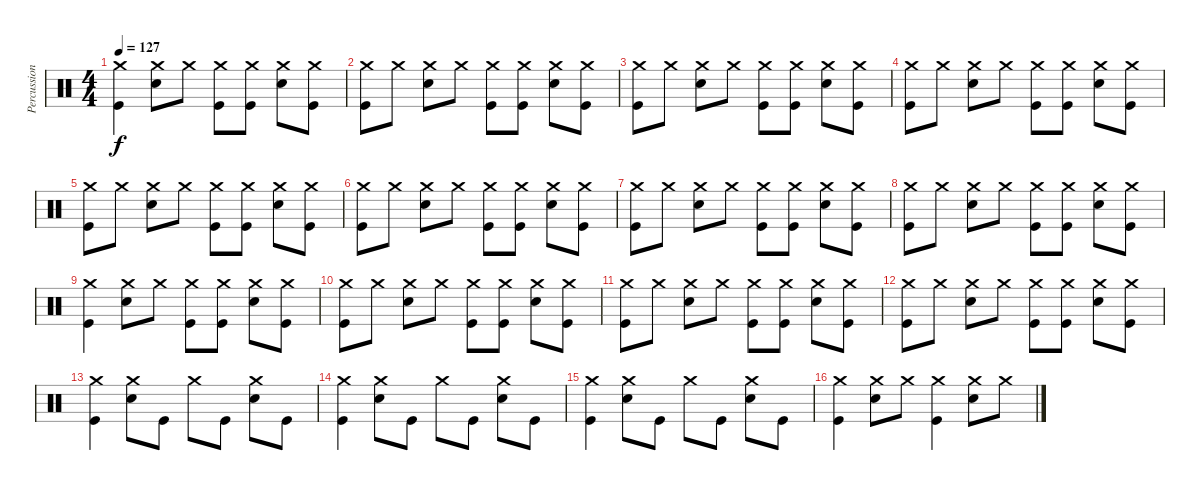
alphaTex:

\track ("Percussion" "Percussion") {instrument percussion}
\staff {score}
\articulation defaults
\ts (4 4)
\tempo 127
\clef neutral
\ks c
("Crash medium (hit)" "Kick (hit)").4{dy f} ("Crash medium (hit)" "Snare (hit) 2").8 "Crash medium (hit)".8 ("Crash medium (hit)" "Kick (hit)").8 ("Crash medium (hit)" "Kick (hit)").8 ("Crash medium (hit)" "Snare (hit) 2").8 ("Crash medium (hit)" "Kick (hit)").8 |
("Crash medium (hit)" "Kick (hit)").8 "Crash medium (hit)".8 ("Crash medium (hit)" "Snare (hit) 2").8 "Crash medium (hit)".8 ("Crash medium (hit)" "Kick (hit)").8 ("Crash medium (hit)" "Kick (hit)").8 ("Crash medium (hit)" "Snare (hit) 2").8 ("Crash medium (hit)" "Kick (hit)").8 |
("Crash medium (hit)" "Kick (hit)").8 "Crash medium (hit)".8 ("Crash medium (hit)" "Snare (hit) 2").8 "Crash medium (hit)".8 ("Crash medium (hit)" "Kick (hit)").8 ("Crash medium (hit)" "Kick (hit)").8 ("Crash medium (hit)" "Snare (hit) 2").8 ("Crash medium (hit)" "Kick (hit)").8 |
("Crash medium (hit)" "Kick (hit)").8 "Crash medium (hit)".8 ("Crash medium (hit)" "Snare (hit) 2").8 "Crash medium (hit)".8 ("Crash medium (hit)" "Kick (hit)").8 ("Crash medium (hit)" "Kick (hit)").8 ("Crash medium (hit)" "Snare (hit) 2").8 ("Crash medium (hit)" "Kick (hit)").8 |
("Crash medium (hit)" "Kick (hit)").8 "Crash medium (hit)".8 ("Crash medium (hit)" "Snare (hit) 2").8 "Crash medium (hit)".8 ("Crash medium (hit)" "Kick (hit)").8 ("Crash medium (hit)" "Kick (hit)").8 ("Crash medium (hit)" "Snare (hit) 2").8 ("Crash medium (hit)" "Kick (hit)").8 |
("Crash medium (hit)" "Kick (hit)").8 "Crash medium (hit)".8 ("Crash medium (hit)" "Snare (hit) 2").8 "Crash medium (hit)".8 ("Crash medium (hit)" "Kick (hit)").8 ("Crash medium (hit)" "Kick (hit)").8 ("Crash medium (hit)" "Snare (hit) 2").8 ("Crash medium (hit)" "Kick (hit)").8 |
("Crash medium (hit)" "Kick (hit)").8 "Crash medium (hit)".8 ("Crash medium (hit)" "Snare (hit) 2").8 "Crash medium (hit)".8 ("Crash medium (hit)" "Kick (hit)").8 ("Crash medium (hit)" "Kick (hit)").8 ("Crash medium (hit)" "Snare (hit) 2").8 ("Crash medium (hit)" "Kick (hit)").8 |
("Crash medium (hit)" "Kick (hit)").8 "Crash medium (hit)".8 ("Crash medium (hit)" "Snare (hit) 2").8 "Crash medium (hit)".8 ("Crash medium (hit)" "Kick (hit)").8 ("Crash medium (hit)" "Kick (hit)").8 ("Crash medium (hit)" "Snare (hit) 2").8 ("Crash medium (hit)" "Kick (hit)").8 |
("Crash medium (hit)" "Kick (hit)").4 ("Crash medium (hit)" "Snare (hit) 2").8 "Crash medium (hit)".8 ("Crash medium (hit)" "Kick (hit)").8 ("Crash medium (hit)" "Kick (hit)").8 ("Crash medium (hit)" "Snare (hit) 2").8 ("Crash medium (hit)" "Kick (hit)").8 |
("Crash medium (hit)" "Kick (hit)").8 "Crash medium (hit)".8 ("Crash medium (hit)" "Snare (hit) 2").8 "Crash medium (hit)".8 ("Crash medium (hit)" "Kick (hit)").8 ("Crash medium (hit)" "Kick (hit)").8 ("Crash medium (hit)" "Snare (hit) 2").8 ("Crash medium (hit)" "Kick (hit)").8 |
("Crash medium (hit)" "Kick (hit)").8 "Crash medium (hit)".8 ("Crash medium (hit)" "Snare (hit) 2").8 "Crash medium (hit)".8 ("Crash medium (hit)" "Kick (hit)").8 ("Crash medium (hit)" "Kick (hit)").8 ("Crash medium (hit)" "Snare (hit) 2").8 ("Crash medium (hit)" "Kick (hit)").8 |
("Crash medium (hit)" "Kick (hit)").8 "Crash medium (hit)".8 ("Crash medium (hit)" "Snare (hit) 2").8 "Crash medium (hit)".8 ("Crash medium (hit)" "Kick (hit)").8 ("Crash medium (hit)" "Kick (hit)").8 ("Crash medium (hit)" "Snare (hit) 2").8 ("Crash medium (hit)" "Kick (hit)").8 |
("Crash medium (hit)" "Kick (hit)").4 ("Crash medium (hit)" "Snare (hit) 2").8 "Kick (hit)".8 "Crash medium (hit)".8 "Kick (hit)".8 ("Crash medium (hit)" "Snare (hit) 2").8 "Kick (hit)".8 |
("Crash medium (hit)" "Kick (hit)").4 ("Crash medium (hit)" "Snare (hit) 2").8 "Kick (hit)".8 "Crash medium (hit)".8 "Kick (hit)".8 ("Crash medium (hit)" "Snare (hit) 2").8 "Kick (hit)".8 |
("Crash medium (hit)" "Kick (hit)").4 ("Crash medium (hit)" "Snare (hit) 2").8 "Kick (hit)".8 "Crash medium (hit)".8 "Kick (hit)".8 ("Crash medium (hit)" "Snare (hit) 2").8 "Kick (hit)".8 |
("Crash medium (hit)" "Kick (hit)").4 ("Crash medium (hit)" "Snare (hit) 2").8 "Crash medium (hit)".8 ("Crash medium (hit)" "Kick (hit)").4 ("Crash medium (hit)" "Snare (hit) 2").8 "Crash medium (hit)".8
